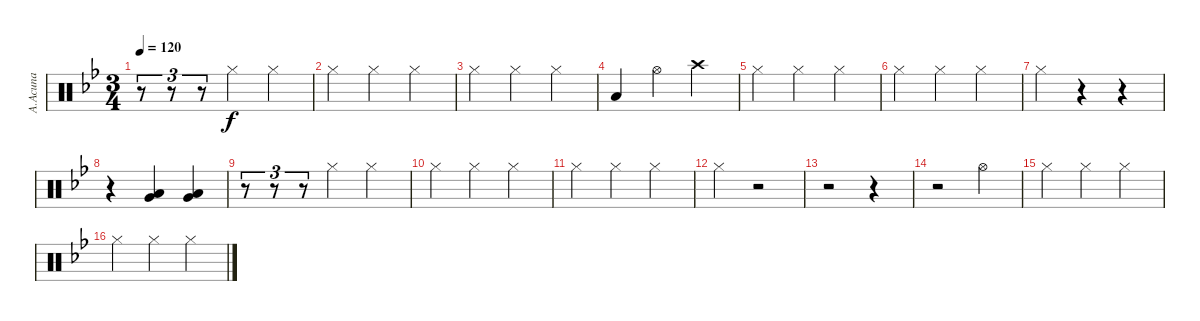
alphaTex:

\track ("A.Acuna" "A.Acuna") {instrument percussion}
\staff {score}
\articulation defaults
\ts (3 4)
\tempo 120
\clef neutral
\ks bb
r.8{tu (3 2) dy f} r.8{tu (3 2)} r.8{tu (3 2)} "Hi-Hat (closed)".4 "Hi-Hat (closed)".4 |
"Hi-Hat (closed)".4 "Hi-Hat (closed)".4 "Hi-Hat (closed)".4 |
"Hi-Hat (closed)".4 "Hi-Hat (closed)".4 "Hi-Hat (closed)".4 |
"Low Tom (hit)".4 "Hi-Hat (open)".4 "Crash high (hit)".4 |
"Hi-Hat (closed)".4 "Hi-Hat (closed)".4 "Hi-Hat (closed)".4 |
"Hi-Hat (closed)".4 "Hi-Hat (closed)".4 "Hi-Hat (closed)".4 |
"Hi-Hat (closed)".4 r.4 r.4 |
r.4 ("Very Low Tom (hit)" "Low Floor Tom (hit)").4 ("Very Low Tom (hit)" "Low Floor Tom (hit)").4 |
r.8{tu (3 2)} r.8{tu (3 2)} r.8{tu (3 2)} "Hi-Hat (closed)".4 "Hi-Hat (closed)".4 |
"Hi-Hat (closed)".4 "Hi-Hat (closed)".4 "Hi-Hat (closed)".4 |
"Hi-Hat (closed)".4 "Hi-Hat (closed)".4 "Hi-Hat (closed)".4 |
"Hi-Hat (closed)".4 r.2 |
r.2 r.4 |
r.2 "Hi-Hat (open)".4 |
"Hi-Hat (closed)".4 "Hi-Hat (closed)".4 "Hi-Hat (closed)".4 |
"Hi-Hat (closed)".4 "Hi-Hat (closed)".4 "Hi-Hat (closed)".4
